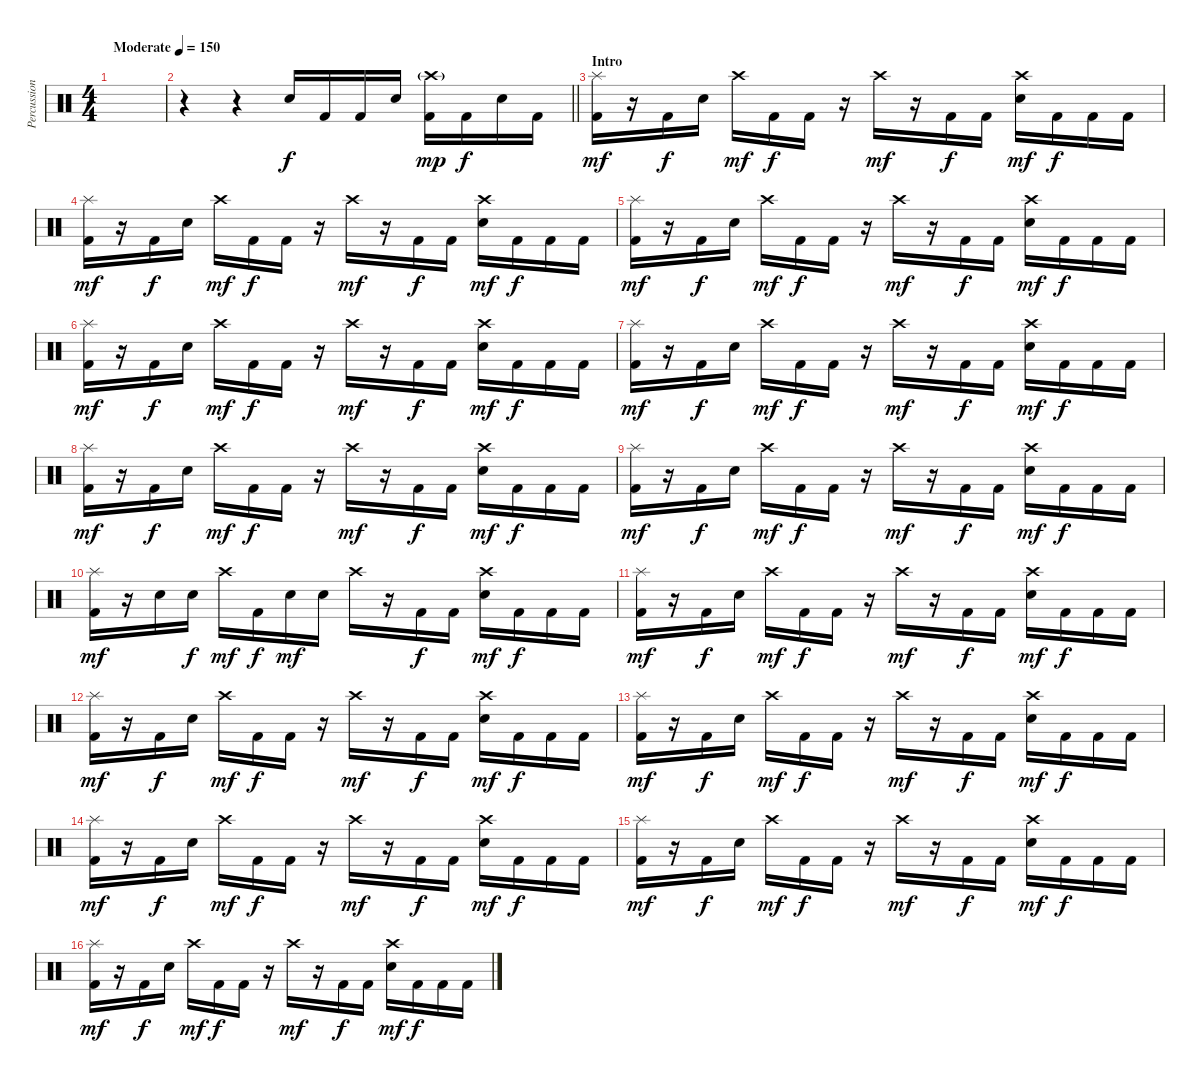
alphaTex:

\track ("Percussion" "Percussion") {instrument percussion}
\staff {score}
\articulation defaults
\ts (4 4)
\tempo (150 "Moderate")
\clef neutral
\ks c
|
\barLineRight lightlight
r.4 r.4 "Snare (hit) 2".16 "Kick (hit) 2".16 "Kick (hit) 2".16 "Snare (hit) 2".16 ("Crash high (hit)"{g} "Kick (hit) 2").16{dy mp} "Kick (hit) 2".16{dy f} "Snare (hit) 2".16 "Kick (hit) 2".16 |
\section ("" "Intro")
("Splash (hit)" "Kick (hit) 2").16{dy mf} r.16 "Kick (hit) 2".16{dy f} "Snare (hit) 2".16 "Crash high (hit)".16{dy mf} "Kick (hit) 2".16{dy f} "Kick (hit) 2".16 r.16 "Crash high (hit)".16{dy mf} r.16 "Kick (hit) 2".16{dy f} "Kick (hit) 2".16 ("Crash high (hit)" "Snare (hit) 2").16{dy mf} "Kick (hit) 2".16{dy f} "Kick (hit) 2".16 "Kick (hit) 2".16 |
("Splash (hit)" "Kick (hit) 2").16{dy mf} r.16 "Kick (hit) 2".16{dy f} "Snare (hit) 2".16 "Crash high (hit)".16{dy mf} "Kick (hit) 2".16{dy f} "Kick (hit) 2".16 r.16 "Crash high (hit)".16{dy mf} r.16 "Kick (hit) 2".16{dy f} "Kick (hit) 2".16 ("Crash high (hit)" "Snare (hit) 2").16{dy mf} "Kick (hit) 2".16{dy f} "Kick (hit) 2".16 "Kick (hit) 2".16 |
("Splash (hit)" "Kick (hit) 2").16{dy mf} r.16 "Kick (hit) 2".16{dy f} "Snare (hit) 2".16 "Crash high (hit)".16{dy mf} "Kick (hit) 2".16{dy f} "Kick (hit) 2".16 r.16 "Crash high (hit)".16{dy mf} r.16 "Kick (hit) 2".16{dy f} "Kick (hit) 2".16 ("Crash high (hit)" "Snare (hit) 2").16{dy mf} "Kick (hit) 2".16{dy f} "Kick (hit) 2".16 "Kick (hit) 2".16 |
("Splash (hit)" "Kick (hit) 2").16{dy mf} r.16 "Kick (hit) 2".16{dy f} "Snare (hit) 2".16 "Crash high (hit)".16{dy mf} "Kick (hit) 2".16{dy f} "Kick (hit) 2".16 r.16 "Crash high (hit)".16{dy mf} r.16 "Kick (hit) 2".16{dy f} "Kick (hit) 2".16 ("Crash high (hit)" "Snare (hit) 2").16{dy mf} "Kick (hit) 2".16{dy f} "Kick (hit) 2".16 "Kick (hit) 2".16 |
("Splash (hit)" "Kick (hit) 2").16{dy mf} r.16 "Kick (hit) 2".16{dy f} "Snare (hit) 2".16 "Crash high (hit)".16{dy mf} "Kick (hit) 2".16{dy f} "Kick (hit) 2".16 r.16 "Crash high (hit)".16{dy mf} r.16 "Kick (hit) 2".16{dy f} "Kick (hit) 2".16 ("Crash high (hit)" "Snare (hit) 2").16{dy mf} "Kick (hit) 2".16{dy f} "Kick (hit) 2".16 "Kick (hit) 2".16 |
("Splash (hit)" "Kick (hit) 2").16{dy mf} r.16 "Kick (hit) 2".16{dy f} "Snare (hit) 2".16 "Crash high (hit)".16{dy mf} "Kick (hit) 2".16{dy f} "Kick (hit) 2".16 r.16 "Crash high (hit)".16{dy mf} r.16 "Kick (hit) 2".16{dy f} "Kick (hit) 2".16 ("Crash high (hit)" "Snare (hit) 2").16{dy mf} "Kick (hit) 2".16{dy f} "Kick (hit) 2".16 "Kick (hit) 2".16 |
("Splash (hit)" "Kick (hit) 2").16{dy mf} r.16 "Kick (hit) 2".16{dy f} "Snare (hit) 2".16 "Crash high (hit)".16{dy mf} "Kick (hit) 2".16{dy f} "Kick (hit) 2".16 r.16 "Crash high (hit)".16{dy mf} r.16 "Kick (hit) 2".16{dy f} "Kick (hit) 2".16 ("Crash high (hit)" "Snare (hit) 2").16{dy mf} "Kick (hit) 2".16{dy f} "Kick (hit) 2".16 "Kick (hit) 2".16 |
("Splash (hit)" "Kick (hit) 2").16{dy mf} r.16 "Snare (hit) 2".16 "Snare (hit) 2".16{dy f} "Crash high (hit)".16{dy mf} "Kick (hit) 2".16{dy f} "Snare (hit) 2".16{dy mf} "Snare (hit) 2".16 "Crash high (hit)".16 r.16 "Kick (hit) 2".16{dy f} "Kick (hit) 2".16 ("Crash high (hit)" "Snare (hit) 2").16{dy mf} "Kick (hit) 2".16{dy f} "Kick (hit) 2".16 "Kick (hit) 2".16 |
("Splash (hit)" "Kick (hit) 2").16{dy mf} r.16 "Kick (hit) 2".16{dy f} "Snare (hit) 2".16 "Crash high (hit)".16{dy mf} "Kick (hit) 2".16{dy f} "Kick (hit) 2".16 r.16 "Crash high (hit)".16{dy mf} r.16 "Kick (hit) 2".16{dy f} "Kick (hit) 2".16 ("Crash high (hit)" "Snare (hit) 2").16{dy mf} "Kick (hit) 2".16{dy f} "Kick (hit) 2".16 "Kick (hit) 2".16 |
("Splash (hit)" "Kick (hit) 2").16{dy mf} r.16 "Kick (hit) 2".16{dy f} "Snare (hit) 2".16 "Crash high (hit)".16{dy mf} "Kick (hit) 2".16{dy f} "Kick (hit) 2".16 r.16 "Crash high (hit)".16{dy mf} r.16 "Kick (hit) 2".16{dy f} "Kick (hit) 2".16 ("Crash high (hit)" "Snare (hit) 2").16{dy mf} "Kick (hit) 2".16{dy f} "Kick (hit) 2".16 "Kick (hit) 2".16 |
("Splash (hit)" "Kick (hit) 2").16{dy mf} r.16 "Kick (hit) 2".16{dy f} "Snare (hit) 2".16 "Crash high (hit)".16{dy mf} "Kick (hit) 2".16{dy f} "Kick (hit) 2".16 r.16 "Crash high (hit)".16{dy mf} r.16 "Kick (hit) 2".16{dy f} "Kick (hit) 2".16 ("Crash high (hit)" "Snare (hit) 2").16{dy mf} "Kick (hit) 2".16{dy f} "Kick (hit) 2".16 "Kick (hit) 2".16 |
("Splash (hit)" "Kick (hit) 2").16{dy mf} r.16 "Kick (hit) 2".16{dy f} "Snare (hit) 2".16 "Crash high (hit)".16{dy mf} "Kick (hit) 2".16{dy f} "Kick (hit) 2".16 r.16 "Crash high (hit)".16{dy mf} r.16 "Kick (hit) 2".16{dy f} "Kick (hit) 2".16 ("Crash high (hit)" "Snare (hit) 2").16{dy mf} "Kick (hit) 2".16{dy f} "Kick (hit) 2".16 "Kick (hit) 2".16 |
("Splash (hit)" "Kick (hit) 2").16{dy mf} r.16 "Kick (hit) 2".16{dy f} "Snare (hit) 2".16 "Crash high (hit)".16{dy mf} "Kick (hit) 2".16{dy f} "Kick (hit) 2".16 r.16 "Crash high (hit)".16{dy mf} r.16 "Kick (hit) 2".16{dy f} "Kick (hit) 2".16 ("Crash high (hit)" "Snare (hit) 2").16{dy mf} "Kick (hit) 2".16{dy f} "Kick (hit) 2".16 "Kick (hit) 2".16 |
("Splash (hit)" "Kick (hit) 2").16{dy mf} r.16 "Kick (hit) 2".16{dy f} "Snare (hit) 2".16 "Crash high (hit)".16{dy mf} "Kick (hit) 2".16{dy f} "Kick (hit) 2".16 r.16 "Crash high (hit)".16{dy mf} r.16 "Kick (hit) 2".16{dy f} "Kick (hit) 2".16 ("Crash high (hit)" "Snare (hit) 2").16{dy mf} "Kick (hit) 2".16{dy f} "Kick (hit) 2".16 "Kick (hit) 2".16
